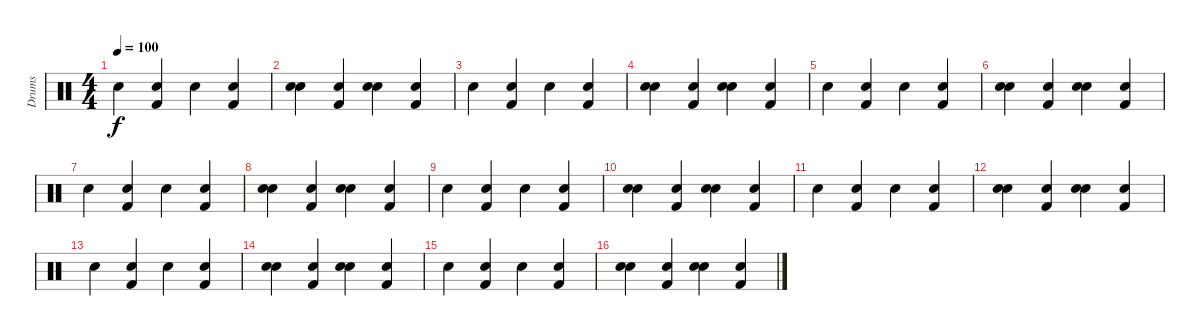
\track ("Drums" "Drums") {instrument percussion}
\staff {score}
\articulation defaults
\ts (4 4)
\tempo 100
\clef neutral
\ks c "Snare (hit) 2".4{dy f}
("Snare (hit)" "Kick (hit) 2").4 "Snare (hit) 2".4 ("Snare (hit)" "Kick (hit) 2").4 |
("Snare (hit)" "Snare (hit) 2").4{volume 8} ("Snare (hit)" "Kick (hit) 2").4{volume 8} ("Snare (hit)" "Snare (hit) 2").4{volume 8} ("Snare (hit)" "Kick (hit) 2").4 |
"Snare (hit) 2".4 ("Snare (hit)" "Kick (hit) 2").4 "Snare (hit) 2".4 ("Snare (hit)" "Kick (hit) 2").4 |
("Snare (hit)" "Snare (hit) 2").4 ("Snare (hit)" "Kick (hit) 2").4 ("Snare (hit)" "Snare (hit) 2").4 ("Snare (hit)" "Kick (hit) 2").4 |
"Snare (hit) 2".4 ("Snare (hit)" "Kick (hit) 2").4 "Snare (hit) 2".4{volume 8} ("Snare (hit)" "Kick (hit) 2").4{volume 7} |
("Snare (hit)" "Snare (hit) 2").4{volume 7} ("Snare (hit)" "Kick (hit) 2").4{volume 7} ("Snare (hit)" "Snare (hit) 2").4 ("Snare (hit)" "Kick (hit) 2").4 |
"Snare (hit) 2".4 ("Snare (hit)" "Kick (hit) 2").4 "Snare (hit) 2".4 ("Snare (hit)" "Kick (hit) 2").4 |
("Snare (hit)" "Snare (hit) 2").4 ("Snare (hit)" "Kick (hit) 2").4{volume 6} ("Snare (hit)" "Snare (hit) 2").4{volume 6} ("Snare (hit)" "Kick (hit) 2").4{volume 6} |
"Snare (hit) 2".4 ("Snare (hit)" "Kick (hit) 2").4 "Snare (hit) 2".4 ("Snare (hit)" "Kick (hit) 2").4 |
("Snare (hit)" "Snare (hit) 2").4 ("Snare (hit)" "Kick (hit) 2").4 ("Snare (hit)" "Snare (hit) 2").4 ("Snare (hit)" "Kick (hit) 2").4 |
"Snare (hit) 2".4 ("Snare (hit)" "Kick (hit) 2").4 "Snare (hit) 2".4 ("Snare (hit)" "Kick (hit) 2").4 |
("Snare (hit)" "Snare (hit) 2").4{volume 6} ("Snare (hit)" "Kick (hit) 2").4{volume 6} ("Snare (hit)" "Snare (hit) 2").4{volume 6} ("Snare (hit)" "Kick (hit) 2").4{volume 5} |
"Snare (hit) 2".4 ("Snare (hit)" "Kick (hit) 2").4 "Snare (hit) 2".4 ("Snare (hit)" "Kick (hit) 2").4 |
("Snare (hit)" "Snare (hit) 2").4{volume 6} ("Snare (hit)" "Kick (hit) 2").4{volume 5} ("Snare (hit)" "Snare (hit) 2").4{volume 5} ("Snare (hit)" "Kick (hit) 2").4{volume 4} |
"Snare (hit) 2".4 ("Snare (hit)" "Kick (hit) 2").4 "Snare (hit) 2".4 ("Snare (hit)" "Kick (hit) 2").4 |
("Snare (hit)" "Snare (hit) 2").4 ("Snare (hit)" "Kick (hit) 2").4 ("Snare (hit)" "Snare (hit) 2").4{volume 4} ("Snare (hit)" "Kick (hit) 2").4{volume 4}
